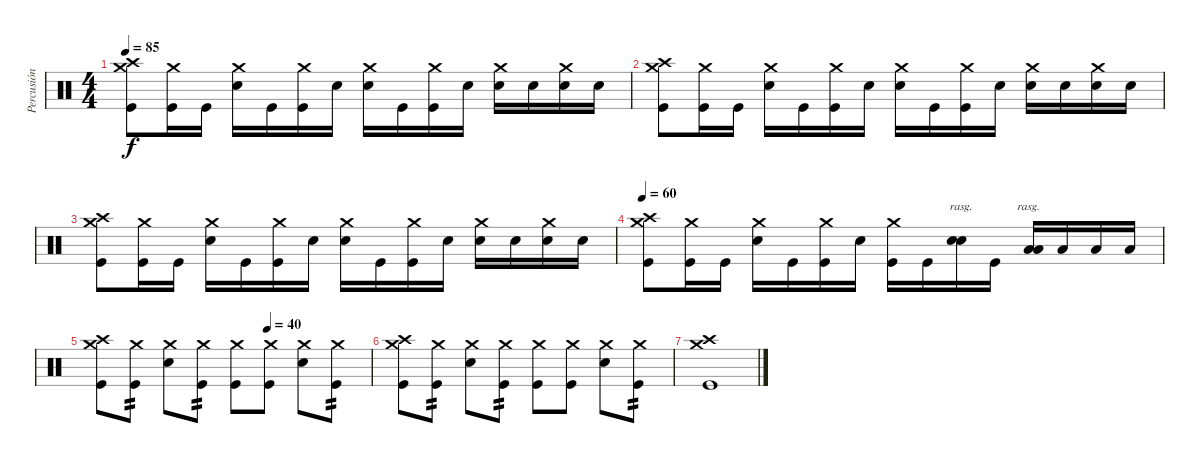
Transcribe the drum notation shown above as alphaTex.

\track ("Percusión" "Percusión") {instrument percussion}
\staff {score}
\articulation defaults
\ts (4 4)
\tempo 85
\clef neutral
\ks c
("Crash medium (hit)" "Crash high (hit)" "Kick (hit)").8{dy f} ("Crash medium (hit)" "Kick (hit)").16 "Kick (hit)".16 ("Crash medium (hit)" "Electric Snare (hit)").16 "Kick (hit)".16 ("Crash medium (hit)" "Kick (hit)").16 "Electric Snare (hit)".16 ("Crash medium (hit)" "Electric Snare (hit)").16 "Kick (hit)".16 ("Crash medium (hit)" "Kick (hit)").16 "Electric Snare (hit)".16 ("Crash medium (hit)" "Electric Snare (hit)").16 "Electric Snare (hit)".16 ("Crash medium (hit)" "Electric Snare (hit)").16 "Electric Snare (hit)".16 |
("Crash medium (hit)" "Crash high (hit)" "Kick (hit)").8 ("Crash medium (hit)" "Kick (hit)").16 "Kick (hit)".16 ("Crash medium (hit)" "Electric Snare (hit)").16 "Kick (hit)".16 ("Crash medium (hit)" "Kick (hit)").16 "Electric Snare (hit)".16 ("Crash medium (hit)" "Electric Snare (hit)").16 "Kick (hit)".16 ("Crash medium (hit)" "Kick (hit)").16 "Electric Snare (hit)".16 ("Crash medium (hit)" "Electric Snare (hit)").16 "Electric Snare (hit)".16 ("Crash medium (hit)" "Electric Snare (hit)").16 "Electric Snare (hit)".16 |
("Crash medium (hit)" "Crash high (hit)" "Kick (hit)").8 ("Crash medium (hit)" "Kick (hit)").16 "Kick (hit)".16 ("Crash medium (hit)" "Electric Snare (hit)").16 "Kick (hit)".16 ("Crash medium (hit)" "Kick (hit)").16 "Electric Snare (hit)".16 ("Crash medium (hit)" "Electric Snare (hit)").16 "Kick (hit)".16 ("Crash medium (hit)" "Kick (hit)").16 "Electric Snare (hit)".16 ("Crash medium (hit)" "Electric Snare (hit)").16 "Electric Snare (hit)".16 ("Crash medium (hit)" "Electric Snare (hit)").16 "Electric Snare (hit)".16 |
\tempo 60
("Crash medium (hit)" "Crash high (hit)" "Kick (hit)").8 ("Crash medium (hit)" "Kick (hit)").16 "Kick (hit)".16 ("Crash medium (hit)" "Electric Snare (hit)").16 "Kick (hit)".16 ("Crash medium (hit)" "Kick (hit)").16 "Electric Snare (hit)".16 ("Crash medium (hit)" "Kick (hit)").16 "Kick (hit)".16 ("Electric Snare (hit)" "Electric Snare (hit)").16{bd 240 rasg ii} "Kick (hit)".16 ("Low Tom (hit)" "Low Tom (hit)").16{bd 240 rasg ii} "Low Floor Tom (hit)".16 "Low Floor Tom (hit)".16 "Low Floor Tom (hit)".16 |
\tempo (40 0.625)
("Crash medium (hit)" "Crash high (hit)" "Kick (hit)").8 ("Crash medium (hit)" "Kick (hit)").8{tp 2} ("Crash medium (hit)" "Electric Snare (hit)").8 ("Crash medium (hit)" "Kick (hit)").8{tp 2} ("Crash medium (hit)" "Kick (hit)").8 ("Crash medium (hit)" "Kick (hit)").8 ("Crash medium (hit)" "Electric Snare (hit)").8 ("Crash medium (hit)" "Kick (hit)").8{tp 2} |
("Crash medium (hit)" "Crash high (hit)" "Kick (hit)").8 ("Crash medium (hit)" "Kick (hit)").8{tp 2} ("Crash medium (hit)" "Electric Snare (hit)").8 ("Crash medium (hit)" "Kick (hit)").8{tp 2} ("Crash medium (hit)" "Kick (hit)").8 ("Crash medium (hit)" "Kick (hit)").8 ("Crash medium (hit)" "Electric Snare (hit)").8 ("Crash medium (hit)" "Kick (hit)").8{tp 2} |
("Crash medium (hit)" "Crash high (hit)" "Kick (hit)").1
